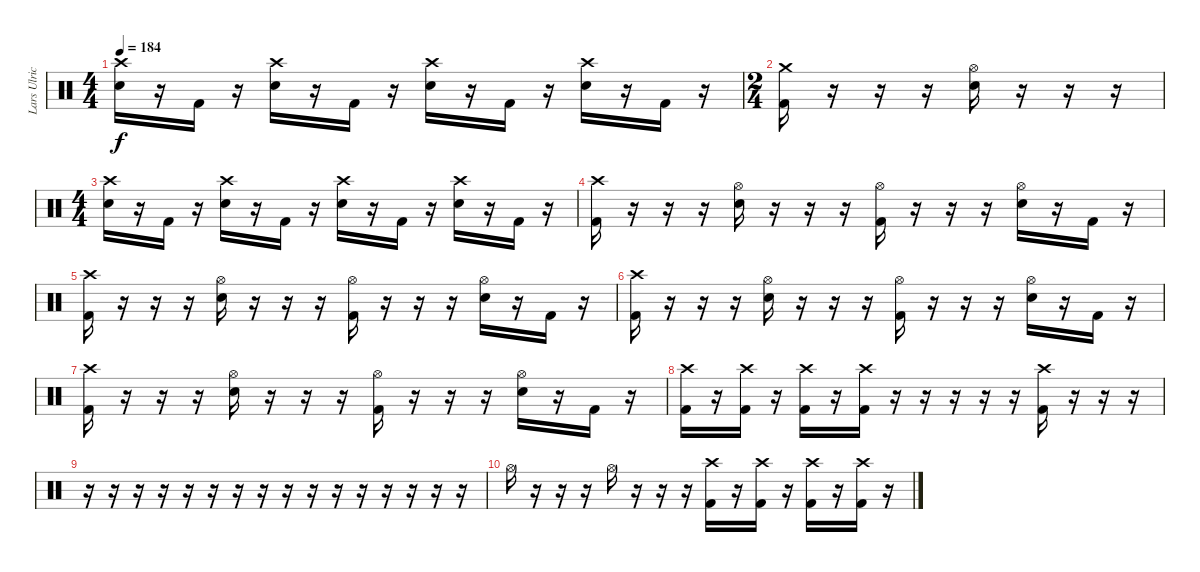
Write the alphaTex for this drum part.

\track ("Lars Ulrich" "Lars Ulric") {instrument percussion}
\staff {score}
\articulation defaults
\ts (4 4)
\tempo 184
\clef neutral
\ks c
("Crash high (hit)" "Electric Snare (hit)").16{dy f} r.16 "Kick (hit) 2".16 r.16 ("Crash high (hit)" "Electric Snare (hit)").16 r.16 "Kick (hit) 2".16 r.16 ("Crash high (hit)" "Electric Snare (hit)").16 r.16 "Kick (hit) 2".16 r.16 ("Crash high (hit)" "Electric Snare (hit)").16 r.16 "Kick (hit) 2".16 r.16 |
\ts (2 4)
("Crash medium (hit)" "Kick (hit) 2").16 r.16 r.16 r.16 ("Electric Snare (hit)" "Hi-Hat (open)").16 r.16 r.16 r.16 |
\ts (4 4)
("Crash high (hit)" "Electric Snare (hit)").16 r.16 "Kick (hit) 2".16 r.16 ("Crash high (hit)" "Electric Snare (hit)").16 r.16 "Kick (hit) 2".16 r.16 ("Crash high (hit)" "Electric Snare (hit)").16 r.16 "Kick (hit) 2".16 r.16 ("Crash high (hit)" "Electric Snare (hit)").16 r.16 "Kick (hit) 2".16 r.16 |
("Crash high (hit)" "Kick (hit) 2").16 r.16 r.16 r.16 ("Electric Snare (hit)" "Hi-Hat (open)").16 r.16 r.16 r.16 ("Hi-Hat (open)" "Kick (hit) 2").16 r.16 r.16 r.16 ("Electric Snare (hit)" "Hi-Hat (open)").16 r.16 "Kick (hit) 2".16 r.16 |
("Crash high (hit)" "Kick (hit) 2").16 r.16 r.16 r.16 ("Electric Snare (hit)" "Hi-Hat (open)").16 r.16 r.16 r.16 ("Hi-Hat (open)" "Kick (hit) 2").16 r.16 r.16 r.16 ("Electric Snare (hit)" "Hi-Hat (open)").16 r.16 "Kick (hit) 2".16 r.16 |
("Crash high (hit)" "Kick (hit) 2").16 r.16 r.16 r.16 ("Electric Snare (hit)" "Hi-Hat (open)").16 r.16 r.16 r.16 ("Hi-Hat (open)" "Kick (hit) 2").16 r.16 r.16 r.16 ("Electric Snare (hit)" "Hi-Hat (open)").16 r.16 "Kick (hit) 2".16 r.16 |
("Crash high (hit)" "Kick (hit) 2").16 r.16 r.16 r.16 ("Electric Snare (hit)" "Hi-Hat (open)").16 r.16 r.16 r.16 ("Hi-Hat (open)" "Kick (hit) 2").16 r.16 r.16 r.16 ("Electric Snare (hit)" "Hi-Hat (open)").16 r.16 "Kick (hit) 2".16 r.16 |
("Crash high (hit)" "Kick (hit) 2").16 r.16 ("Crash high (hit)" "Kick (hit) 2").16 r.16 ("Crash high (hit)" "Kick (hit) 2").16 r.16 ("Crash high (hit)" "Kick (hit) 2").16 r.16 r.16 r.16 r.16 r.16 ("Crash high (hit)" "Kick (hit) 2").16 r.16 r.16 r.16 |
r.16 r.16 r.16 r.16 r.16 r.16 r.16 r.16 r.16 r.16 r.16 r.16 r.16 r.16 r.16 r.16 |
"Hi-Hat (open)".16 r.16 r.16 r.16 "Hi-Hat (open)".16 r.16 r.16 r.16 ("Crash high (hit)" "Kick (hit) 2").16 r.16 ("Crash high (hit)" "Kick (hit) 2").16 r.16 ("Crash high (hit)" "Kick (hit) 2").16 r.16 ("Crash high (hit)" "Kick (hit) 2").16 r.16
